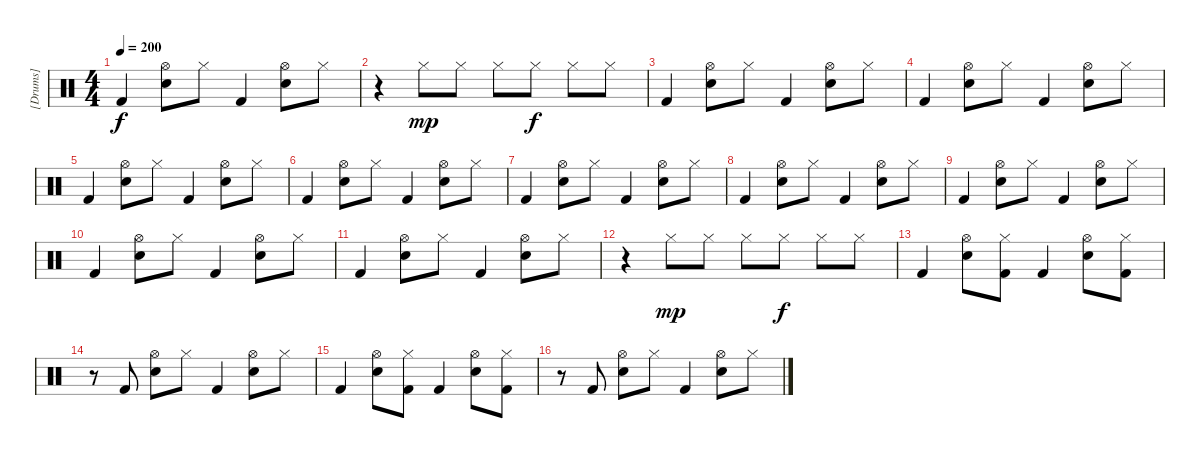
\track ("[Drums]" "[Drums]") {instrument percussion}
\staff {score}
\articulation defaults
\ts (4 4)
\tempo 200
\clef neutral
\ks c "Kick (hit) 2".4{dy f}
("Hi-Hat (open)" "Electric Snare (hit)").8 "Hi-Hat (closed)".8 "Kick (hit) 2".4 ("Hi-Hat (open)" "Electric Snare (hit)").8 "Hi-Hat (closed)".8 |
r.4 "Hi-Hat (closed)".8{dy mp} "Hi-Hat (closed)".8 "Hi-Hat (closed)".8 "Hi-Hat (closed)".8{dy f} "Hi-Hat (closed)".8 "Hi-Hat (closed)".8 |
"Kick (hit) 2".4 ("Hi-Hat (open)" "Electric Snare (hit)").8 "Hi-Hat (closed)".8 "Kick (hit) 2".4 ("Hi-Hat (open)" "Electric Snare (hit)").8 "Hi-Hat (closed)".8 |
"Kick (hit) 2".4 ("Hi-Hat (open)" "Electric Snare (hit)").8 "Hi-Hat (closed)".8 "Kick (hit) 2".4 ("Hi-Hat (open)" "Electric Snare (hit)").8 "Hi-Hat (closed)".8 |
"Kick (hit) 2".4 ("Hi-Hat (open)" "Electric Snare (hit)").8 "Hi-Hat (closed)".8 "Kick (hit) 2".4 ("Hi-Hat (open)" "Electric Snare (hit)").8 "Hi-Hat (closed)".8 |
"Kick (hit) 2".4 ("Hi-Hat (open)" "Electric Snare (hit)").8 "Hi-Hat (closed)".8 "Kick (hit) 2".4 ("Hi-Hat (open)" "Electric Snare (hit)").8 "Hi-Hat (closed)".8 |
"Kick (hit) 2".4 ("Hi-Hat (open)" "Electric Snare (hit)").8 "Hi-Hat (closed)".8 "Kick (hit) 2".4 ("Hi-Hat (open)" "Electric Snare (hit)").8 "Hi-Hat (closed)".8 |
"Kick (hit) 2".4 ("Hi-Hat (open)" "Electric Snare (hit)").8 "Hi-Hat (closed)".8 "Kick (hit) 2".4 ("Hi-Hat (open)" "Electric Snare (hit)").8 "Hi-Hat (closed)".8 |
"Kick (hit) 2".4 ("Hi-Hat (open)" "Electric Snare (hit)").8 "Hi-Hat (closed)".8 "Kick (hit) 2".4 ("Hi-Hat (open)" "Electric Snare (hit)").8 "Hi-Hat (closed)".8 |
"Kick (hit) 2".4 ("Hi-Hat (open)" "Electric Snare (hit)").8 "Hi-Hat (closed)".8 "Kick (hit) 2".4 ("Hi-Hat (open)" "Electric Snare (hit)").8 "Hi-Hat (closed)".8 |
"Kick (hit) 2".4 ("Hi-Hat (open)" "Electric Snare (hit)").8 "Hi-Hat (closed)".8 "Kick (hit) 2".4 ("Hi-Hat (open)" "Electric Snare (hit)").8 "Hi-Hat (closed)".8 |
r.4 "Hi-Hat (closed)".8{dy mp} "Hi-Hat (closed)".8 "Hi-Hat (closed)".8 "Hi-Hat (closed)".8{dy f} "Hi-Hat (closed)".8 "Hi-Hat (closed)".8 |
"Kick (hit) 2".4 ("Hi-Hat (open)" "Electric Snare (hit)").8 ("Hi-Hat (closed)" "Kick (hit) 2").8 "Kick (hit) 2".4 ("Hi-Hat (open)" "Electric Snare (hit)").8 ("Hi-Hat (closed)" "Kick (hit) 2").8 |
r.8 "Kick (hit) 2".8 ("Hi-Hat (open)" "Electric Snare (hit)").8 "Hi-Hat (closed)".8 "Kick (hit) 2".4 ("Hi-Hat (open)" "Electric Snare (hit)").8 "Hi-Hat (closed)".8 |
"Kick (hit) 2".4 ("Hi-Hat (open)" "Electric Snare (hit)").8 ("Hi-Hat (closed)" "Kick (hit) 2").8 "Kick (hit) 2".4 ("Hi-Hat (open)" "Electric Snare (hit)").8 ("Hi-Hat (closed)" "Kick (hit) 2").8 |
r.8 "Kick (hit) 2".8 ("Hi-Hat (open)" "Electric Snare (hit)").8 "Hi-Hat (closed)".8 "Kick (hit) 2".4 ("Hi-Hat (open)" "Electric Snare (hit)").8 "Hi-Hat (closed)".8
